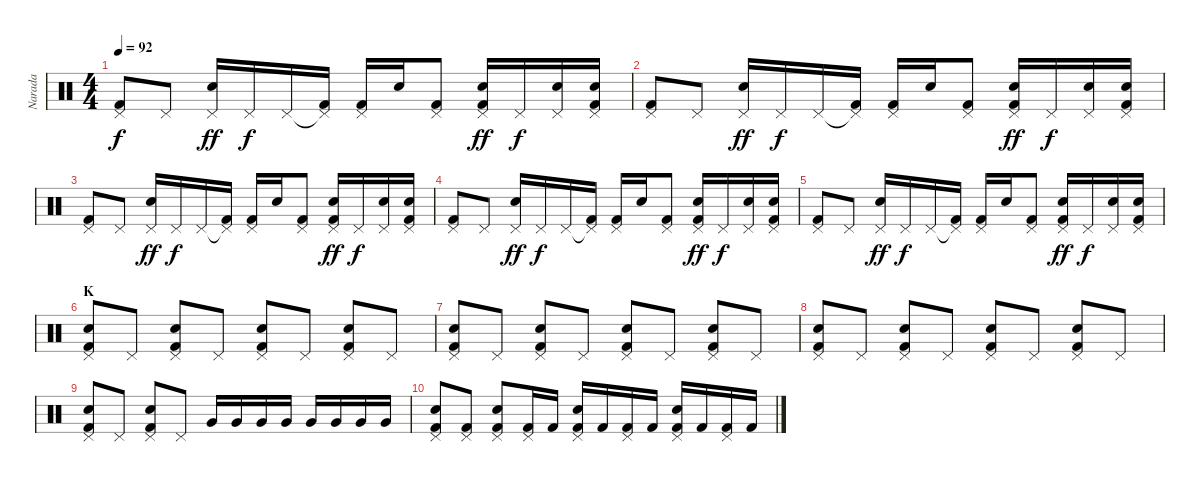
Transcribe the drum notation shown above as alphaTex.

\track ("Narada" "Narada") {instrument percussion}
\staff {score}
\articulation defaults
\ts (4 4)
\tempo 92
\clef neutral
\ks c
("Pedal Hi-Hat (hit)" "Kick (hit) 2").8{dy f} "Pedal Hi-Hat (hit)".8 ("Pedal Hi-Hat (hit)" "Snare (hit) 2").16{dy ff} "Pedal Hi-Hat (hit)".16{dy f} "Pedal Hi-Hat (hit)".16 ("Pedal Hi-Hat (hit)"{t} "Kick (hit) 2").16 ("Pedal Hi-Hat (hit)" "Kick (hit) 2").16 "Snare (hit) 2".16 ("Pedal Hi-Hat (hit)" "Kick (hit) 2").8 ("Pedal Hi-Hat (hit)" "Snare (hit) 2" "Kick (hit) 2").16{dy ff} "Pedal Hi-Hat (hit)".16{dy f} ("Pedal Hi-Hat (hit)" "Snare (hit) 2").16 ("Pedal Hi-Hat (hit)" "Snare (hit) 2" "Kick (hit) 2").16 |
("Pedal Hi-Hat (hit)" "Kick (hit) 2").8 "Pedal Hi-Hat (hit)".8 ("Pedal Hi-Hat (hit)" "Snare (hit) 2").16{dy ff} "Pedal Hi-Hat (hit)".16{dy f} "Pedal Hi-Hat (hit)".16 ("Pedal Hi-Hat (hit)"{t} "Kick (hit) 2").16 ("Pedal Hi-Hat (hit)" "Kick (hit) 2").16 "Snare (hit) 2".16 ("Pedal Hi-Hat (hit)" "Kick (hit) 2").8 ("Pedal Hi-Hat (hit)" "Snare (hit) 2" "Kick (hit) 2").16{dy ff} "Pedal Hi-Hat (hit)".16{dy f} ("Pedal Hi-Hat (hit)" "Snare (hit) 2").16 ("Pedal Hi-Hat (hit)" "Snare (hit) 2" "Kick (hit) 2").16 |
("Pedal Hi-Hat (hit)" "Kick (hit) 2").8 "Pedal Hi-Hat (hit)".8 ("Pedal Hi-Hat (hit)" "Snare (hit) 2").16{dy ff} "Pedal Hi-Hat (hit)".16{dy f} "Pedal Hi-Hat (hit)".16 ("Pedal Hi-Hat (hit)"{t} "Kick (hit) 2").16 ("Pedal Hi-Hat (hit)" "Kick (hit) 2").16 "Snare (hit) 2".16 ("Pedal Hi-Hat (hit)" "Kick (hit) 2").8 ("Pedal Hi-Hat (hit)" "Snare (hit) 2" "Kick (hit) 2").16{dy ff} "Pedal Hi-Hat (hit)".16{dy f} ("Pedal Hi-Hat (hit)" "Snare (hit) 2").16 ("Pedal Hi-Hat (hit)" "Snare (hit) 2" "Kick (hit) 2").16 |
("Pedal Hi-Hat (hit)" "Kick (hit) 2").8 "Pedal Hi-Hat (hit)".8 ("Pedal Hi-Hat (hit)" "Snare (hit) 2").16{dy ff} "Pedal Hi-Hat (hit)".16{dy f} "Pedal Hi-Hat (hit)".16 ("Pedal Hi-Hat (hit)"{t} "Kick (hit) 2").16 ("Pedal Hi-Hat (hit)" "Kick (hit) 2").16 "Snare (hit) 2".16 ("Pedal Hi-Hat (hit)" "Kick (hit) 2").8 ("Pedal Hi-Hat (hit)" "Snare (hit) 2" "Kick (hit) 2").16{dy ff} "Pedal Hi-Hat (hit)".16{dy f} ("Pedal Hi-Hat (hit)" "Snare (hit) 2").16 ("Pedal Hi-Hat (hit)" "Snare (hit) 2" "Kick (hit) 2").16 |
("Pedal Hi-Hat (hit)" "Kick (hit) 2").8 "Pedal Hi-Hat (hit)".8 ("Pedal Hi-Hat (hit)" "Snare (hit) 2").16{dy ff} "Pedal Hi-Hat (hit)".16{dy f} "Pedal Hi-Hat (hit)".16 ("Pedal Hi-Hat (hit)"{t} "Kick (hit) 2").16 ("Pedal Hi-Hat (hit)" "Kick (hit) 2").16 "Snare (hit) 2".16 ("Pedal Hi-Hat (hit)" "Kick (hit) 2").8 ("Pedal Hi-Hat (hit)" "Snare (hit) 2" "Kick (hit) 2").16{dy ff} "Pedal Hi-Hat (hit)".16{dy f} ("Pedal Hi-Hat (hit)" "Snare (hit) 2").16 ("Pedal Hi-Hat (hit)" "Snare (hit) 2" "Kick (hit) 2").16 |
\section ("" "K")
("Pedal Hi-Hat (hit)" "Snare (hit) 2" "Kick (hit) 2").8 "Pedal Hi-Hat (hit)".8 ("Pedal Hi-Hat (hit)" "Snare (hit) 2" "Kick (hit) 2").8 "Pedal Hi-Hat (hit)".8 ("Pedal Hi-Hat (hit)" "Snare (hit) 2" "Kick (hit) 2").8 "Pedal Hi-Hat (hit)".8 ("Pedal Hi-Hat (hit)" "Snare (hit) 2" "Kick (hit) 2").8 "Pedal Hi-Hat (hit)".8 |
("Pedal Hi-Hat (hit)" "Snare (hit) 2" "Kick (hit) 2").8 "Pedal Hi-Hat (hit)".8 ("Pedal Hi-Hat (hit)" "Snare (hit) 2" "Kick (hit) 2").8 "Pedal Hi-Hat (hit)".8 ("Pedal Hi-Hat (hit)" "Snare (hit) 2" "Kick (hit) 2").8 "Pedal Hi-Hat (hit)".8 ("Pedal Hi-Hat (hit)" "Snare (hit) 2" "Kick (hit) 2").8 "Pedal Hi-Hat (hit)".8 |
("Pedal Hi-Hat (hit)" "Snare (hit) 2" "Kick (hit) 2").8 "Pedal Hi-Hat (hit)".8 ("Pedal Hi-Hat (hit)" "Snare (hit) 2" "Kick (hit) 2").8 "Pedal Hi-Hat (hit)".8 ("Pedal Hi-Hat (hit)" "Snare (hit) 2" "Kick (hit) 2").8 "Pedal Hi-Hat (hit)".8 ("Pedal Hi-Hat (hit)" "Snare (hit) 2" "Kick (hit) 2").8 "Pedal Hi-Hat (hit)".8 |
("Pedal Hi-Hat (hit)" "Snare (hit) 2" "Kick (hit) 2").8 "Pedal Hi-Hat (hit)".8 ("Pedal Hi-Hat (hit)" "Snare (hit) 2" "Kick (hit) 2").8 "Pedal Hi-Hat (hit)".8 "Very Low Tom (hit)".16 "Very Low Tom (hit)".16 "Very Low Tom (hit)".16 "Very Low Tom (hit)".16 "Very Low Tom (hit)".16 "Very Low Tom (hit)".16 "Very Low Tom (hit)".16 "Very Low Tom (hit)".16 |
("Pedal Hi-Hat (hit)" "Snare (hit) 2" "Kick (hit) 2").8 ("Pedal Hi-Hat (hit)" "Kick (hit) 2").8 ("Pedal Hi-Hat (hit)" "Snare (hit) 2" "Kick (hit) 2").8 ("Pedal Hi-Hat (hit)" "Kick (hit) 2").16 "Kick (hit) 2".16 ("Pedal Hi-Hat (hit)" "Snare (hit) 2" "Kick (hit) 2").16 "Kick (hit) 2".16 ("Pedal Hi-Hat (hit)" "Kick (hit) 2").16 "Kick (hit) 2".16 ("Pedal Hi-Hat (hit)" "Snare (hit) 2" "Kick (hit) 2").16 "Kick (hit) 2".16 ("Pedal Hi-Hat (hit)" "Kick (hit) 2").16 "Kick (hit) 2".16
